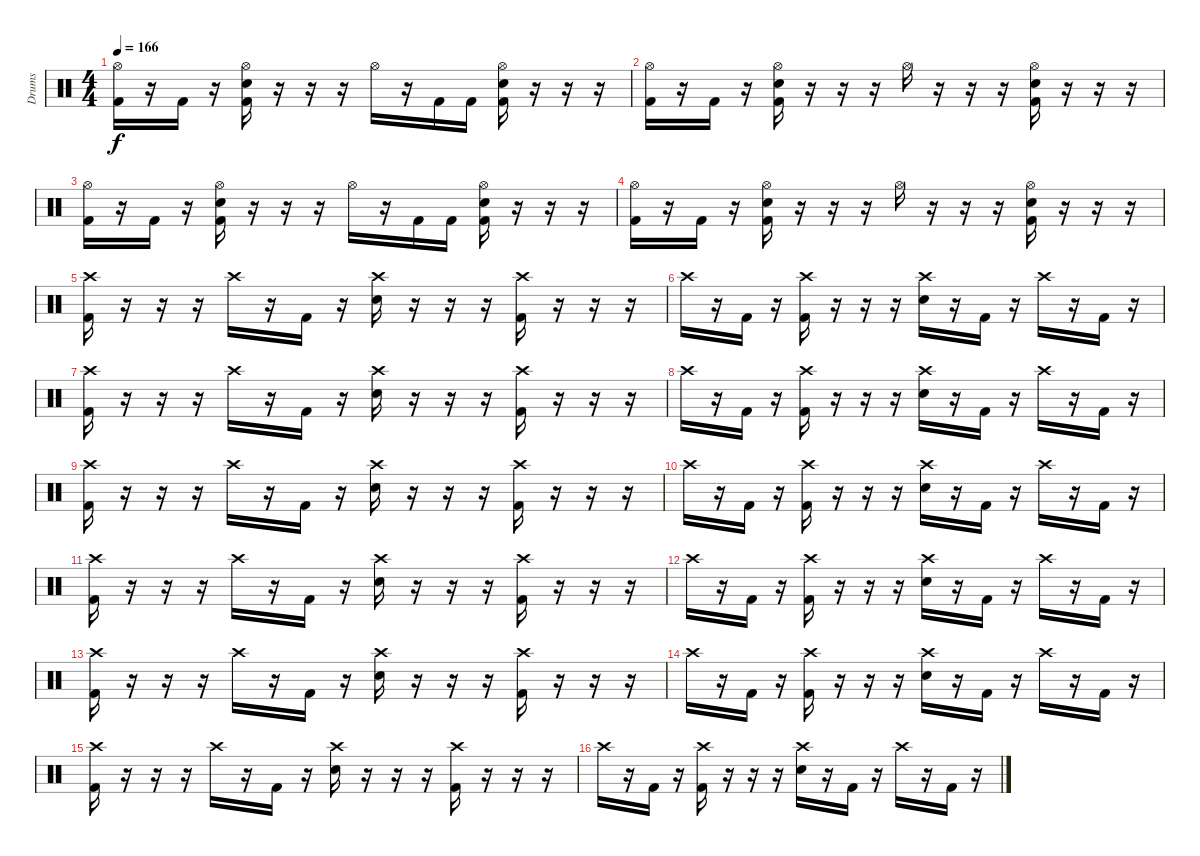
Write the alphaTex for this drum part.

\track ("Drums" "Drums") {instrument percussion}
\staff {score}
\articulation defaults
\ts (4 4)
\tempo 166
\clef neutral
\ks c
("Hi-Hat (open)" "Kick (hit) 2").16{dy f} r.16 "Kick (hit) 2".16 r.16 ("Hi-Hat (open)" "Electric Snare (hit)" "Kick (hit) 2").16 r.16 r.16 r.16 "Hi-Hat (open)".16 r.16 "Kick (hit) 2".16 "Kick (hit) 2".16 ("Hi-Hat (open)" "Electric Snare (hit)" "Kick (hit) 2").16 r.16 r.16 r.16 |
("Hi-Hat (open)" "Kick (hit) 2").16 r.16 "Kick (hit) 2".16 r.16 ("Hi-Hat (open)" "Electric Snare (hit)" "Kick (hit) 2").16 r.16 r.16 r.16 "Hi-Hat (open)".16 r.16 r.16 r.16 ("Hi-Hat (open)" "Electric Snare (hit)" "Kick (hit) 2").16 r.16 r.16 r.16 |
("Hi-Hat (open)" "Kick (hit) 2").16 r.16 "Kick (hit) 2".16 r.16 ("Hi-Hat (open)" "Electric Snare (hit)" "Kick (hit) 2").16 r.16 r.16 r.16 "Hi-Hat (open)".16 r.16 "Kick (hit) 2".16 "Kick (hit) 2".16 ("Hi-Hat (open)" "Electric Snare (hit)" "Kick (hit) 2").16 r.16 r.16 r.16 |
("Hi-Hat (open)" "Kick (hit) 2").16 r.16 "Kick (hit) 2".16 r.16 ("Hi-Hat (open)" "Electric Snare (hit)" "Kick (hit) 2").16 r.16 r.16 r.16 "Hi-Hat (open)".16 r.16 r.16 r.16 ("Hi-Hat (open)" "Electric Snare (hit)" "Kick (hit) 2").16 r.16 r.16 r.16 |
("Crash high (hit)" "Kick (hit) 2").16 r.16 r.16 r.16 "Crash high (hit)".16 r.16 "Kick (hit) 2".16 r.16 ("Crash high (hit)" "Electric Snare (hit)").16 r.16 r.16 r.16 ("Crash high (hit)" "Kick (hit) 2").16 r.16 r.16 r.16 |
"Crash high (hit)".16 r.16 "Kick (hit) 2".16 r.16 ("Crash high (hit)" "Kick (hit) 2").16 r.16 r.16 r.16 ("Crash high (hit)" "Electric Snare (hit)").16 r.16 "Kick (hit) 2".16 r.16 "Crash high (hit)".16 r.16 "Kick (hit) 2".16 r.16 |
("Crash high (hit)" "Kick (hit) 2").16 r.16 r.16 r.16 "Crash high (hit)".16 r.16 "Kick (hit) 2".16 r.16 ("Crash high (hit)" "Electric Snare (hit)").16 r.16 r.16 r.16 ("Crash high (hit)" "Kick (hit) 2").16 r.16 r.16 r.16 |
"Crash high (hit)".16 r.16 "Kick (hit) 2".16 r.16 ("Crash high (hit)" "Kick (hit) 2").16 r.16 r.16 r.16 ("Crash high (hit)" "Electric Snare (hit)").16 r.16 "Kick (hit) 2".16 r.16 "Crash high (hit)".16 r.16 "Kick (hit) 2".16 r.16 |
("Crash high (hit)" "Kick (hit) 2").16 r.16 r.16 r.16 "Crash high (hit)".16 r.16 "Kick (hit) 2".16 r.16 ("Crash high (hit)" "Electric Snare (hit)").16 r.16 r.16 r.16 ("Crash high (hit)" "Kick (hit) 2").16 r.16 r.16 r.16 |
"Crash high (hit)".16 r.16 "Kick (hit) 2".16 r.16 ("Crash high (hit)" "Kick (hit) 2").16 r.16 r.16 r.16 ("Crash high (hit)" "Electric Snare (hit)").16 r.16 "Kick (hit) 2".16 r.16 "Crash high (hit)".16 r.16 "Kick (hit) 2".16 r.16 |
("Crash high (hit)" "Kick (hit) 2").16 r.16 r.16 r.16 "Crash high (hit)".16 r.16 "Kick (hit) 2".16 r.16 ("Crash high (hit)" "Electric Snare (hit)").16 r.16 r.16 r.16 ("Crash high (hit)" "Kick (hit) 2").16 r.16 r.16 r.16 |
"Crash high (hit)".16 r.16 "Kick (hit) 2".16 r.16 ("Crash high (hit)" "Kick (hit) 2").16 r.16 r.16 r.16 ("Crash high (hit)" "Electric Snare (hit)").16 r.16 "Kick (hit) 2".16 r.16 "Crash high (hit)".16 r.16 "Kick (hit) 2".16 r.16 |
("Crash high (hit)" "Kick (hit) 2").16 r.16 r.16 r.16 "Crash high (hit)".16 r.16 "Kick (hit) 2".16 r.16 ("Crash high (hit)" "Electric Snare (hit)").16 r.16 r.16 r.16 ("Crash high (hit)" "Kick (hit) 2").16 r.16 r.16 r.16 |
"Crash high (hit)".16 r.16 "Kick (hit) 2".16 r.16 ("Crash high (hit)" "Kick (hit) 2").16 r.16 r.16 r.16 ("Crash high (hit)" "Electric Snare (hit)").16 r.16 "Kick (hit) 2".16 r.16 "Crash high (hit)".16 r.16 "Kick (hit) 2".16 r.16 |
("Crash high (hit)" "Kick (hit) 2").16 r.16 r.16 r.16 "Crash high (hit)".16 r.16 "Kick (hit) 2".16 r.16 ("Crash high (hit)" "Electric Snare (hit)").16 r.16 r.16 r.16 ("Crash high (hit)" "Kick (hit) 2").16 r.16 r.16 r.16 |
"Crash high (hit)".16 r.16 "Kick (hit) 2".16 r.16 ("Crash high (hit)" "Kick (hit) 2").16 r.16 r.16 r.16 ("Crash high (hit)" "Electric Snare (hit)").16 r.16 "Kick (hit) 2".16 r.16 "Crash high (hit)".16 r.16 "Kick (hit) 2".16 r.16
